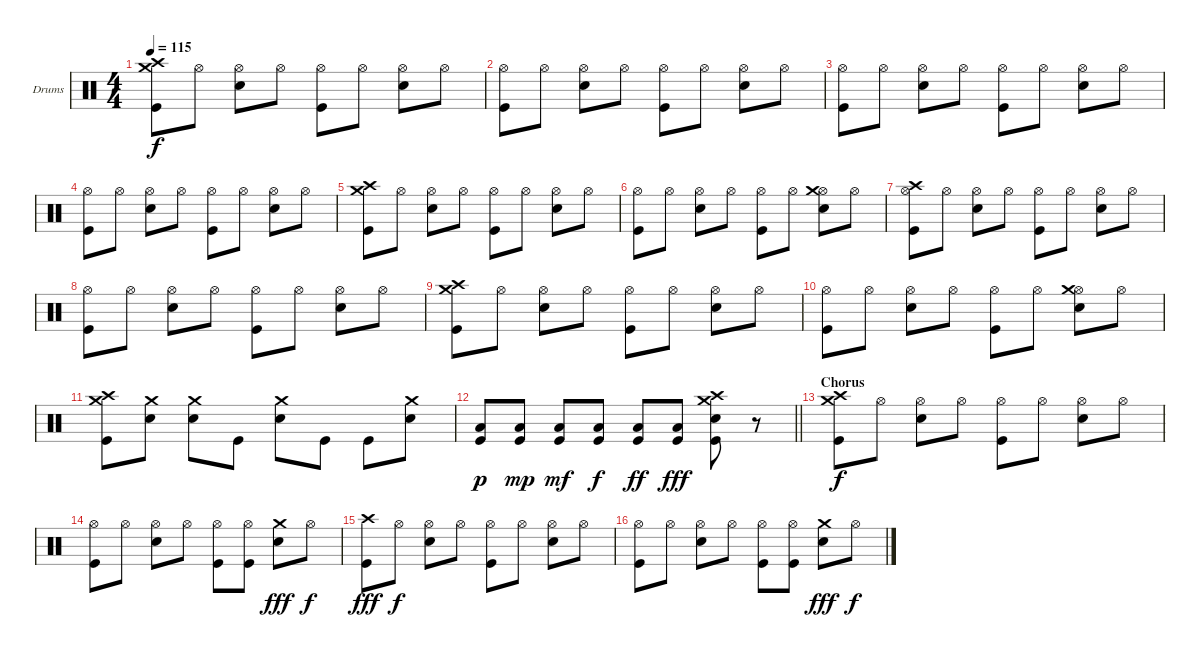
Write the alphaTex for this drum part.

\bracketExtendMode groupsimilarinstruments
\firstSystemTrackNameOrientation horizontal
\otherSystemsTrackNameOrientation horizontal
\track ("Drumkit" "Drums") {instrument percussion}
\staff {score}
\articulation defaults
\ts (4 4)
\tempo 115
\clef neutral
\ks c
("Crash medium (hit)" "Crash high (hit)" "Kick (hit)").8{dy f} "Hi-Hat (open)".8 ("Hi-Hat (open)" "Snare (hit) 2").8 "Hi-Hat (open)".8 ("Hi-Hat (open)" "Kick (hit)").8 "Hi-Hat (open)".8 ("Hi-Hat (open)" "Snare (hit) 2").8 "Hi-Hat (open)".8 |
("Hi-Hat (open)" "Kick (hit)").8 "Hi-Hat (open)".8 ("Hi-Hat (open)" "Snare (hit) 2").8 "Hi-Hat (open)".8 ("Hi-Hat (open)" "Kick (hit)").8 "Hi-Hat (open)".8 ("Hi-Hat (open)" "Snare (hit) 2").8 "Hi-Hat (open)".8 |
("Hi-Hat (open)" "Kick (hit)").8 "Hi-Hat (open)".8 ("Hi-Hat (open)" "Snare (hit) 2").8 "Hi-Hat (open)".8 ("Hi-Hat (open)" "Kick (hit)").8 "Hi-Hat (open)".8 ("Hi-Hat (open)" "Snare (hit) 2").8 "Hi-Hat (open)".8 |
("Hi-Hat (open)" "Kick (hit)").8 "Hi-Hat (open)".8 ("Hi-Hat (open)" "Snare (hit) 2").8 "Hi-Hat (open)".8 ("Hi-Hat (open)" "Kick (hit)").8 "Hi-Hat (open)".8 ("Hi-Hat (open)" "Snare (hit) 2").8 "Hi-Hat (open)".8 |
("Crash medium (hit)" "Crash high (hit)" "Kick (hit)").8 "Hi-Hat (open)".8 ("Hi-Hat (open)" "Snare (hit) 2").8 "Hi-Hat (open)".8 ("Hi-Hat (open)" "Kick (hit)").8 "Hi-Hat (open)".8 ("Hi-Hat (open)" "Snare (hit) 2").8 "Hi-Hat (open)".8 |
("Hi-Hat (open)" "Kick (hit)").8 "Hi-Hat (open)".8 ("Hi-Hat (open)" "Snare (hit) 2").8 "Hi-Hat (open)".8 ("Hi-Hat (open)" "Kick (hit)").8 "Hi-Hat (open)".8 ("Hi-Hat (open)" "Crash medium (hit)" "Snare (hit) 2").8 "Hi-Hat (open)".8 |
("Hi-Hat (open)" "Crash high (hit)" "Kick (hit)").8 "Hi-Hat (open)".8 ("Hi-Hat (open)" "Snare (hit) 2").8 "Hi-Hat (open)".8 ("Hi-Hat (open)" "Kick (hit)").8 "Hi-Hat (open)".8 ("Hi-Hat (open)" "Snare (hit) 2").8 "Hi-Hat (open)".8 |
("Hi-Hat (open)" "Kick (hit)").8 "Hi-Hat (open)".8 ("Hi-Hat (open)" "Snare (hit) 2").8 "Hi-Hat (open)".8 ("Hi-Hat (open)" "Kick (hit)").8 "Hi-Hat (open)".8 ("Hi-Hat (open)" "Snare (hit) 2").8 "Hi-Hat (open)".8 |
("Crash medium (hit)" "Crash high (hit)" "Kick (hit)").8 "Hi-Hat (open)".8 ("Hi-Hat (open)" "Snare (hit) 2").8 "Hi-Hat (open)".8 ("Hi-Hat (open)" "Kick (hit)").8 "Hi-Hat (open)".8 ("Hi-Hat (open)" "Snare (hit) 2").8 "Hi-Hat (open)".8 |
("Hi-Hat (open)" "Kick (hit)").8 "Hi-Hat (open)".8 ("Hi-Hat (open)" "Snare (hit) 2").8 "Hi-Hat (open)".8 ("Hi-Hat (open)" "Kick (hit)").8 "Hi-Hat (open)".8 ("Hi-Hat (open)" "Crash medium (hit)" "Snare (hit) 2").8 "Hi-Hat (open)".8 |
("Crash medium (hit)" "Crash high (hit)" "Kick (hit)").8 ("Crash medium (hit)" "Snare (hit) 2").8 ("Crash medium (hit)" "Snare (hit) 2").8 "Kick (hit)".8 ("Crash medium (hit)" "Snare (hit) 2").8 "Kick (hit)".8 "Kick (hit)".8 ("Crash medium (hit)" "Snare (hit) 2").8 |
\barLineRight lightlight
("Low Tom (hit)" "Kick (hit)").8{dy p} ("Low Tom (hit)" "Kick (hit)").8{dy mp} ("Low Tom (hit)" "Kick (hit)").8{dy mf} ("Low Tom (hit)" "Kick (hit)").8{dy f} ("Low Tom (hit)" "Kick (hit)").8{dy ff} ("Low Tom (hit)" "Kick (hit)").8{dy fff} ("Kick (hit)" "Crash high (hit)" "Crash medium (hit)" "Snare (hit) 2").8 r.8 |
\section ("" "Chorus")
("Crash medium (hit)" "Crash high (hit)" "Kick (hit)").8{dy f} "Hi-Hat (open)".8 ("Hi-Hat (open)" "Snare (hit) 2").8 "Hi-Hat (open)".8 ("Hi-Hat (open)" "Kick (hit)").8 "Hi-Hat (open)".8 ("Hi-Hat (open)" "Snare (hit) 2").8 "Hi-Hat (open)".8 |
("Hi-Hat (open)" "Kick (hit)").8 "Hi-Hat (open)".8 ("Hi-Hat (open)" "Snare (hit) 2").8 "Hi-Hat (open)".8 ("Hi-Hat (open)" "Kick (hit)").8 ("Hi-Hat (open)" "Kick (hit)").8 ("Crash medium (hit)" "Snare (hit) 2").8{dy fff} "Hi-Hat (open)".8{dy f} |
("Crash high (hit)" "Kick (hit)").8{dy fff} "Hi-Hat (open)".8{dy f} ("Hi-Hat (open)" "Snare (hit) 2").8 "Hi-Hat (open)".8 ("Hi-Hat (open)" "Kick (hit)").8 "Hi-Hat (open)".8 ("Hi-Hat (open)" "Snare (hit) 2").8 "Hi-Hat (open)".8 |
("Hi-Hat (open)" "Kick (hit)").8 "Hi-Hat (open)".8 ("Hi-Hat (open)" "Snare (hit) 2").8 "Hi-Hat (open)".8 ("Hi-Hat (open)" "Kick (hit)").8 ("Hi-Hat (open)" "Kick (hit)").8 ("Crash medium (hit)" "Snare (hit) 2").8{dy fff} "Hi-Hat (open)".8{dy f}
